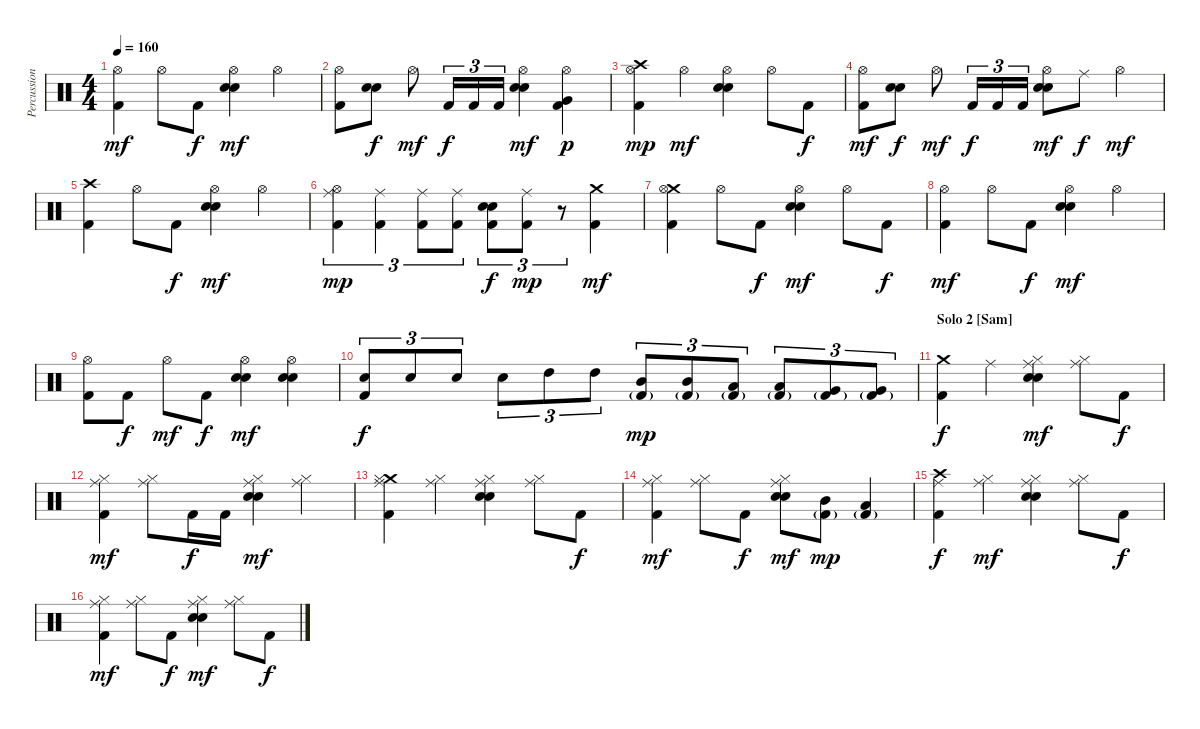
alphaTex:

\track ("Percussion" "Percussion") {instrument percussion}
\staff {score}
\articulation defaults
\ts (4 4)
\tempo 160
\clef neutral
\ks c
("Hi-Hat (open)" "Kick (hit) 2").4{dy mf} "Hi-Hat (open)".8 "Kick (hit) 2".8{dy f} ("Hi-Hat (open)" "Electric Snare (hit)" "Snare (hit) 2").4{dy mf} "Hi-Hat (open)".4 |
("Hi-Hat (open)" "Kick (hit) 2").8 ("Electric Snare (hit)" "Snare (hit) 2").8{dy f} "Hi-Hat (open)".8{dy mf} "Kick (hit) 2".16{tu (3 2) dy f} "Kick (hit) 2".16{tu (3 2)} "Kick (hit) 2".16{tu (3 2)} ("Hi-Hat (open)" "Electric Snare (hit)" "Snare (hit) 2").4{dy mf} ("Hi-Hat (open)" "Very Low Tom (hit)" "Kick (hit) 2").4{dy p} |
("Crash high (hit)" "Hi-Hat (open)" "Kick (hit) 2").4{dy mp} "Hi-Hat (open)".4{dy mf} ("Hi-Hat (open)" "Electric Snare (hit)" "Snare (hit) 2").4 "Hi-Hat (open)".8 "Kick (hit) 2".8{dy f} |
("Hi-Hat (open)" "Kick (hit) 2").8{dy mf} ("Electric Snare (hit)" "Snare (hit) 2").8{dy f} "Hi-Hat (open)".8{dy mf} "Kick (hit) 2".16{tu (3 2) dy f} "Kick (hit) 2".16{tu (3 2)} "Kick (hit) 2".16{tu (3 2)} ("Hi-Hat (open)" "Electric Snare (hit)" "Snare (hit) 2").8{dy mf} "Ride (middle)".8{dy f} "Hi-Hat (open)".4{dy mf} |
("Crash high (hit)" "Kick (hit) 2").4 "Hi-Hat (open)".8 "Kick (hit) 2".8{dy f} ("Hi-Hat (open)" "Electric Snare (hit)" "Snare (hit) 2").4{dy mf} "Hi-Hat (open)".4 |
("Hi-Hat (open)" "Ride (middle)" "Kick (hit) 2").4{tu (3 2) dy mp} ("Ride (middle)" "Kick (hit) 2").4{tu (3 2)} ("Ride (middle)" "Kick (hit) 2").8{tu (3 2)} ("Ride (middle)" "Kick (hit) 2").8{tu (3 2)} ("Electric Snare (hit)" "Snare (hit) 2" "Kick (hit) 2").8{tu (3 2) dy f} ("Ride (middle)" "Kick (hit) 2").8{tu (3 2) dy mp} r.8{tu (3 2)} ("Crash medium (hit)" "Kick (hit) 2").4{dy mf} |
("Crash medium (hit)" "Hi-Hat (open)" "Kick (hit) 2").4 "Hi-Hat (open)".8 "Kick (hit) 2".8{dy f} ("Hi-Hat (open)" "Electric Snare (hit)" "Snare (hit) 2").4{dy mf} "Hi-Hat (open)".8 "Kick (hit) 2".8{dy f} |
("Hi-Hat (open)" "Kick (hit) 2").4{dy mf} "Hi-Hat (open)".8 "Kick (hit) 2".8{dy f} ("Hi-Hat (open)" "Electric Snare (hit)" "Snare (hit) 2").4{dy mf} "Hi-Hat (open)".4 |
("Hi-Hat (open)" "Kick (hit) 2").8 "Kick (hit) 2".8{dy f} "Hi-Hat (open)".8{dy mf} "Kick (hit) 2".8{dy f} ("Hi-Hat (open)" "Electric Snare (hit)" "Snare (hit) 2").4{dy mf} ("Hi-Hat (open)" "Electric Snare (hit)" "Snare (hit) 2").4 |
("Snare (hit) 2" "Kick (hit) 2").8{tu (3 2) dy f} "Snare (hit) 2".8{tu (3 2)} "Snare (hit) 2".8{tu (3 2)} "Snare (hit) 2".8{tu (3 2)} "High Tom (hit)".8{tu (3 2)} "High Tom (hit)".8{tu (3 2)} ("Mid Tom (hit)" "Kick (hit) 2"{g}).8{tu (3 2) dy mp} ("Mid Tom (hit)" "Kick (hit) 2"{g}).8{tu (3 2)} ("Low Tom (hit)" "Kick (hit) 2"{g}).8{tu (3 2)} ("Low Tom (hit)" "Kick (hit) 2"{g}).8{tu (3 2)} ("Very Low Tom (hit)" "Kick (hit) 2"{g}).8{tu (3 2)} ("Very Low Tom (hit)" "Kick (hit) 2"{g}).8{tu (3 2)} |
\section ("" "Solo 2 [Sam]")
("Crash medium (hit)" "Kick (hit) 2").4{dy f} "Ride (middle)".4 ("Ride (middle)" "Hi-Hat (closed)" "Electric Snare (hit)" "Snare (hit) 2").4{dy mf} ("Ride (middle)" "Hi-Hat (closed)").8 "Kick (hit) 2".8{dy f} |
("Ride (middle)" "Hi-Hat (closed)" "Kick (hit) 2").4{dy mf} ("Ride (middle)" "Hi-Hat (closed)").8 "Kick (hit) 2".16{dy f} "Kick (hit) 2".16 ("Ride (middle)" "Hi-Hat (closed)" "Electric Snare (hit)" "Snare (hit) 2").4{dy mf} ("Ride (middle)" "Hi-Hat (closed)").4 |
("Crash medium (hit)" "Ride (middle)" "Hi-Hat (closed)" "Kick (hit) 2").4 ("Ride (middle)" "Hi-Hat (closed)").4 ("Ride (middle)" "Hi-Hat (closed)" "Electric Snare (hit)" "Snare (hit) 2").4 ("Ride (middle)" "Hi-Hat (closed)").8 "Kick (hit) 2".8{dy f} |
("Ride (middle)" "Hi-Hat (closed)" "Kick (hit) 2").4{dy mf} ("Ride (middle)" "Hi-Hat (closed)").8 "Kick (hit) 2".8{dy f} ("Ride (middle)" "Hi-Hat (closed)" "Electric Snare (hit)" "Snare (hit) 2").8{dy mf} ("Mid Tom (hit)" "Kick (hit) 2"{g}).8{dy mp} ("Low Tom (hit)" "Kick (hit) 2"{g}).4 |
("Crash high (hit)" "Ride (middle)" "Kick (hit) 2").4{dy f} ("Ride (middle)" "Hi-Hat (closed)").4{dy mf} ("Ride (middle)" "Hi-Hat (closed)" "Electric Snare (hit)" "Snare (hit) 2").4 ("Ride (middle)" "Hi-Hat (closed)").8 "Kick (hit) 2".8{dy f} |
("Ride (middle)" "Hi-Hat (closed)" "Kick (hit) 2").4{dy mf} ("Ride (middle)" "Hi-Hat (closed)").8 "Kick (hit) 2".8{dy f} ("Ride (middle)" "Hi-Hat (closed)" "Electric Snare (hit)" "Snare (hit) 2").4{dy mf} ("Ride (middle)" "Hi-Hat (closed)").8 "Kick (hit) 2".8{dy f}
